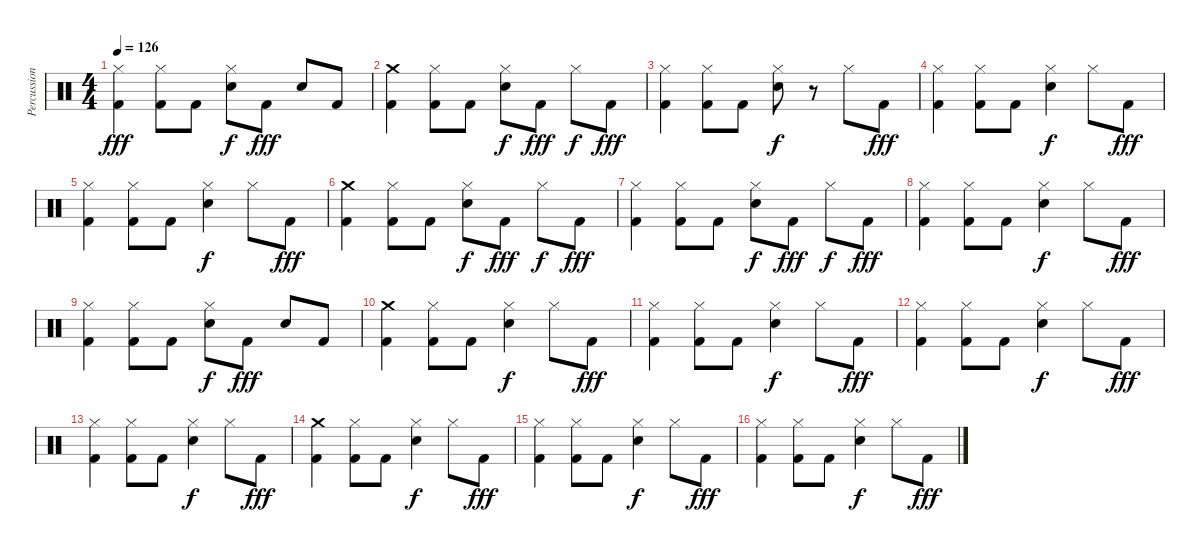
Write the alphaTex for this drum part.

\track ("Percussion" "Percussion") {instrument percussion}
\staff {score}
\articulation defaults
\ts (4 4)
\tempo 126
\clef neutral
\ks c
("Hi-Hat (closed)" "Kick (hit) 2").4{dy fff} ("Hi-Hat (closed)" "Kick (hit) 2").8 "Kick (hit) 2".8 ("Hi-Hat (closed)" "Electric Snare (hit)").8{dy f} "Kick (hit) 2".8{dy fff} "Electric Snare (hit)".8 "Kick (hit) 2".8 |
("Crash medium (hit)" "Kick (hit) 2").4 ("Hi-Hat (closed)" "Kick (hit) 2").8 "Kick (hit) 2".8 ("Hi-Hat (closed)" "Electric Snare (hit)").8{dy f} "Kick (hit) 2".8{dy fff} "Hi-Hat (closed)".8{dy f} "Kick (hit) 2".8{dy fff} |
("Hi-Hat (closed)" "Kick (hit) 2").4 ("Hi-Hat (closed)" "Kick (hit) 2").8 "Kick (hit) 2".8 ("Hi-Hat (closed)" "Electric Snare (hit)").8{dy f} r.8 "Hi-Hat (closed)".8 "Kick (hit) 2".8{dy fff} |
("Hi-Hat (closed)" "Kick (hit) 2").4 ("Hi-Hat (closed)" "Kick (hit) 2").8 "Kick (hit) 2".8 ("Hi-Hat (closed)" "Electric Snare (hit)").4{dy f} "Hi-Hat (closed)".8 "Kick (hit) 2".8{dy fff} |
("Hi-Hat (closed)" "Kick (hit) 2").4 ("Hi-Hat (closed)" "Kick (hit) 2").8 "Kick (hit) 2".8 ("Hi-Hat (closed)" "Electric Snare (hit)").4{dy f} "Hi-Hat (closed)".8 "Kick (hit) 2".8{dy fff} |
("Crash medium (hit)" "Kick (hit) 2").4 ("Hi-Hat (closed)" "Kick (hit) 2").8 "Kick (hit) 2".8 ("Hi-Hat (closed)" "Electric Snare (hit)").8{dy f} "Kick (hit) 2".8{dy fff} "Hi-Hat (closed)".8{dy f} "Kick (hit) 2".8{dy fff} |
("Hi-Hat (closed)" "Kick (hit) 2").4 ("Hi-Hat (closed)" "Kick (hit) 2").8 "Kick (hit) 2".8 ("Hi-Hat (closed)" "Electric Snare (hit)").8{dy f} "Kick (hit) 2".8{dy fff} "Hi-Hat (closed)".8{dy f} "Kick (hit) 2".8{dy fff} |
("Hi-Hat (closed)" "Kick (hit) 2").4 ("Hi-Hat (closed)" "Kick (hit) 2").8 "Kick (hit) 2".8 ("Hi-Hat (closed)" "Electric Snare (hit)").4{dy f} "Hi-Hat (closed)".8 "Kick (hit) 2".8{dy fff} |
("Hi-Hat (closed)" "Kick (hit) 2").4 ("Hi-Hat (closed)" "Kick (hit) 2").8 "Kick (hit) 2".8 ("Hi-Hat (closed)" "Electric Snare (hit)").8{dy f} "Kick (hit) 2".8{dy fff} "Electric Snare (hit)".8 "Kick (hit) 2".8 |
("Crash medium (hit)" "Kick (hit) 2").4 ("Hi-Hat (closed)" "Kick (hit) 2").8 "Kick (hit) 2".8 ("Hi-Hat (closed)" "Electric Snare (hit)").4{dy f} "Hi-Hat (closed)".8 "Kick (hit) 2".8{dy fff} |
("Hi-Hat (closed)" "Kick (hit) 2").4 ("Hi-Hat (closed)" "Kick (hit) 2").8 "Kick (hit) 2".8 ("Hi-Hat (closed)" "Electric Snare (hit)").4{dy f} "Hi-Hat (closed)".8 "Kick (hit) 2".8{dy fff} |
("Hi-Hat (closed)" "Kick (hit) 2").4 ("Hi-Hat (closed)" "Kick (hit) 2").8 "Kick (hit) 2".8 ("Hi-Hat (closed)" "Electric Snare (hit)").4{dy f} "Hi-Hat (closed)".8 "Kick (hit) 2".8{dy fff} |
("Hi-Hat (closed)" "Kick (hit) 2").4 ("Hi-Hat (closed)" "Kick (hit) 2").8 "Kick (hit) 2".8 ("Hi-Hat (closed)" "Electric Snare (hit)").4{dy f} "Hi-Hat (closed)".8 "Kick (hit) 2".8{dy fff} |
("Crash medium (hit)" "Kick (hit) 2").4 ("Hi-Hat (closed)" "Kick (hit) 2").8 "Kick (hit) 2".8 ("Hi-Hat (closed)" "Electric Snare (hit)").4{dy f} "Hi-Hat (closed)".8 "Kick (hit) 2".8{dy fff} |
("Hi-Hat (closed)" "Kick (hit) 2").4 ("Hi-Hat (closed)" "Kick (hit) 2").8 "Kick (hit) 2".8 ("Hi-Hat (closed)" "Electric Snare (hit)").4{dy f} "Hi-Hat (closed)".8 "Kick (hit) 2".8{dy fff} |
("Hi-Hat (closed)" "Kick (hit) 2").4 ("Hi-Hat (closed)" "Kick (hit) 2").8 "Kick (hit) 2".8 ("Hi-Hat (closed)" "Electric Snare (hit)").4{dy f} "Hi-Hat (closed)".8 "Kick (hit) 2".8{dy fff}
